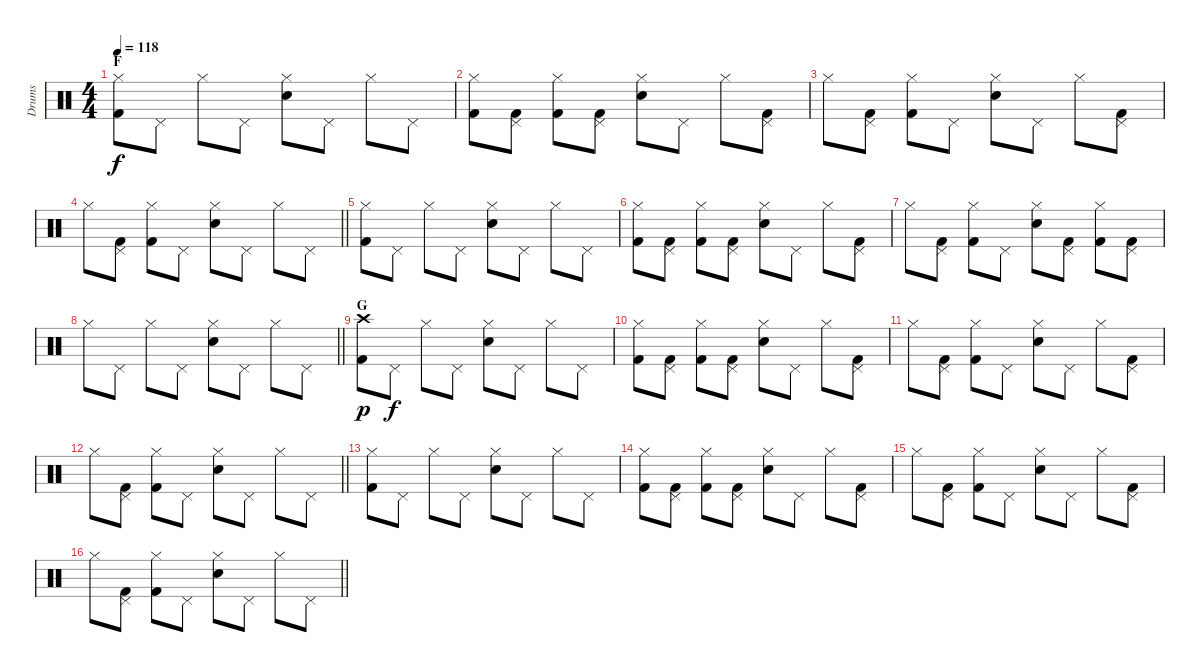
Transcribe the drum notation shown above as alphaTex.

\track ("Drums" "Drums") {instrument percussion}
\staff {score}
\articulation defaults
\ts (4 4)
\section ("" "F")
\tempo 118
\clef neutral
\ks c
("Hi-Hat (closed)" "Kick (hit) 2").8{dy f} "Pedal Hi-Hat (hit)".8 "Hi-Hat (closed)".8 "Pedal Hi-Hat (hit)".8 ("Hi-Hat (closed)" "Electric Snare (hit)").8 "Pedal Hi-Hat (hit)".8 "Hi-Hat (closed)".8 "Pedal Hi-Hat (hit)".8 |
("Hi-Hat (closed)" "Kick (hit) 2").8 ("Pedal Hi-Hat (hit)" "Kick (hit) 2").8 ("Hi-Hat (closed)" "Kick (hit) 2").8 ("Pedal Hi-Hat (hit)" "Kick (hit) 2").8 ("Hi-Hat (closed)" "Electric Snare (hit)").8 "Pedal Hi-Hat (hit)".8 "Hi-Hat (closed)".8 ("Pedal Hi-Hat (hit)" "Kick (hit) 2").8 |
"Hi-Hat (closed)".8 ("Pedal Hi-Hat (hit)" "Kick (hit) 2").8 ("Hi-Hat (closed)" "Kick (hit) 2").8 "Pedal Hi-Hat (hit)".8 ("Hi-Hat (closed)" "Electric Snare (hit)").8 "Pedal Hi-Hat (hit)".8 "Hi-Hat (closed)".8 ("Pedal Hi-Hat (hit)" "Kick (hit) 2").8 |
\barLineRight lightlight "Hi-Hat (closed)".8
("Pedal Hi-Hat (hit)" "Kick (hit) 2").8 ("Hi-Hat (closed)" "Kick (hit) 2").8 "Pedal Hi-Hat (hit)".8 ("Hi-Hat (closed)" "Electric Snare (hit)").8 "Pedal Hi-Hat (hit)".8 "Hi-Hat (closed)".8 "Pedal Hi-Hat (hit)".8 |
("Hi-Hat (closed)" "Kick (hit) 2").8 "Pedal Hi-Hat (hit)".8 "Hi-Hat (closed)".8 "Pedal Hi-Hat (hit)".8 ("Hi-Hat (closed)" "Electric Snare (hit)").8 "Pedal Hi-Hat (hit)".8 "Hi-Hat (closed)".8 "Pedal Hi-Hat (hit)".8 |
("Hi-Hat (closed)" "Kick (hit) 2").8 ("Pedal Hi-Hat (hit)" "Kick (hit) 2").8 ("Hi-Hat (closed)" "Kick (hit) 2").8 ("Pedal Hi-Hat (hit)" "Kick (hit) 2").8 ("Hi-Hat (closed)" "Electric Snare (hit)").8 "Pedal Hi-Hat (hit)".8 "Hi-Hat (closed)".8 ("Pedal Hi-Hat (hit)" "Kick (hit) 2").8 |
"Hi-Hat (closed)".8 ("Pedal Hi-Hat (hit)" "Kick (hit) 2").8 ("Hi-Hat (closed)" "Kick (hit) 2").8 "Pedal Hi-Hat (hit)".8 ("Hi-Hat (closed)" "Electric Snare (hit)").8 ("Pedal Hi-Hat (hit)" "Kick (hit) 2").8 ("Hi-Hat (closed)" "Kick (hit) 2").8 ("Pedal Hi-Hat (hit)" "Kick (hit) 2").8 |
\barLineRight lightlight "Hi-Hat (closed)".8 "Pedal Hi-Hat (hit)".8 "Hi-Hat (closed)".8 "Pedal Hi-Hat (hit)".8
("Hi-Hat (closed)" "Electric Snare (hit)").8 "Pedal Hi-Hat (hit)".8 "Hi-Hat (closed)".8 "Pedal Hi-Hat (hit)".8 |
\section ("" "G")
("Crash high (hit)" "Kick (hit) 2").8{dy p} "Pedal Hi-Hat (hit)".8{dy f} "Hi-Hat (closed)".8 "Pedal Hi-Hat (hit)".8 ("Hi-Hat (closed)" "Electric Snare (hit)").8 "Pedal Hi-Hat (hit)".8 "Hi-Hat (closed)".8 "Pedal Hi-Hat (hit)".8 |
("Hi-Hat (closed)" "Kick (hit) 2").8 ("Pedal Hi-Hat (hit)" "Kick (hit) 2").8 ("Hi-Hat (closed)" "Kick (hit) 2").8 ("Pedal Hi-Hat (hit)" "Kick (hit) 2").8 ("Hi-Hat (closed)" "Electric Snare (hit)").8 "Pedal Hi-Hat (hit)".8 "Hi-Hat (closed)".8 ("Pedal Hi-Hat (hit)" "Kick (hit) 2").8 |
"Hi-Hat (closed)".8 ("Pedal Hi-Hat (hit)" "Kick (hit) 2").8 ("Hi-Hat (closed)" "Kick (hit) 2").8 "Pedal Hi-Hat (hit)".8 ("Hi-Hat (closed)" "Electric Snare (hit)").8 "Pedal Hi-Hat (hit)".8 "Hi-Hat (closed)".8 ("Pedal Hi-Hat (hit)" "Kick (hit) 2").8 |
\barLineRight lightlight "Hi-Hat (closed)".8
("Pedal Hi-Hat (hit)" "Kick (hit) 2").8 ("Hi-Hat (closed)" "Kick (hit) 2").8 "Pedal Hi-Hat (hit)".8 ("Hi-Hat (closed)" "Electric Snare (hit)").8 "Pedal Hi-Hat (hit)".8 "Hi-Hat (closed)".8 "Pedal Hi-Hat (hit)".8 |
("Hi-Hat (closed)" "Kick (hit) 2").8 "Pedal Hi-Hat (hit)".8 "Hi-Hat (closed)".8 "Pedal Hi-Hat (hit)".8 ("Hi-Hat (closed)" "Electric Snare (hit)").8 "Pedal Hi-Hat (hit)".8 "Hi-Hat (closed)".8 "Pedal Hi-Hat (hit)".8 |
("Hi-Hat (closed)" "Kick (hit) 2").8 ("Pedal Hi-Hat (hit)" "Kick (hit) 2").8 ("Hi-Hat (closed)" "Kick (hit) 2").8 ("Pedal Hi-Hat (hit)" "Kick (hit) 2").8 ("Hi-Hat (closed)" "Electric Snare (hit)").8 "Pedal Hi-Hat (hit)".8 "Hi-Hat (closed)".8 ("Pedal Hi-Hat (hit)" "Kick (hit) 2").8 |
"Hi-Hat (closed)".8 ("Pedal Hi-Hat (hit)" "Kick (hit) 2").8 ("Hi-Hat (closed)" "Kick (hit) 2").8 "Pedal Hi-Hat (hit)".8 ("Hi-Hat (closed)" "Electric Snare (hit)").8 "Pedal Hi-Hat (hit)".8 "Hi-Hat (closed)".8 ("Pedal Hi-Hat (hit)" "Kick (hit) 2").8 |
\barLineRight lightlight "Hi-Hat (closed)".8
("Pedal Hi-Hat (hit)" "Kick (hit) 2").8 ("Hi-Hat (closed)" "Kick (hit) 2").8 "Pedal Hi-Hat (hit)".8 ("Hi-Hat (closed)" "Electric Snare (hit)").8 "Pedal Hi-Hat (hit)".8 "Hi-Hat (closed)".8 "Pedal Hi-Hat (hit)".8
